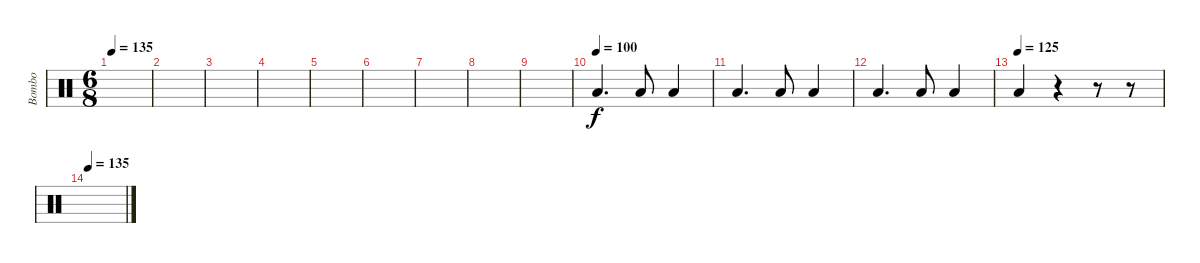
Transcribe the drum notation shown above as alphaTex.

\track ("Bombo" "Bombo") {instrument percussion}
\staff {score}
\articulation defaults
\ts (6 8)
\tempo 135
\clef neutral
\ks c
|
|
|
|
|
|
|
|
|
\tempo (100)
"Low Floor Tom (hit)".4{d} "Low Floor Tom (hit)".8 "Low Floor Tom (hit)".4 |
"Low Floor Tom (hit)".4{d} "Low Floor Tom (hit)".8 "Low Floor Tom (hit)".4 |
"Low Floor Tom (hit)".4{d} "Low Floor Tom (hit)".8 "Low Floor Tom (hit)".4 |
\tempo (125)
"Low Floor Tom (hit)".4 r.4 r.8 r.8 |
\tempo 135
